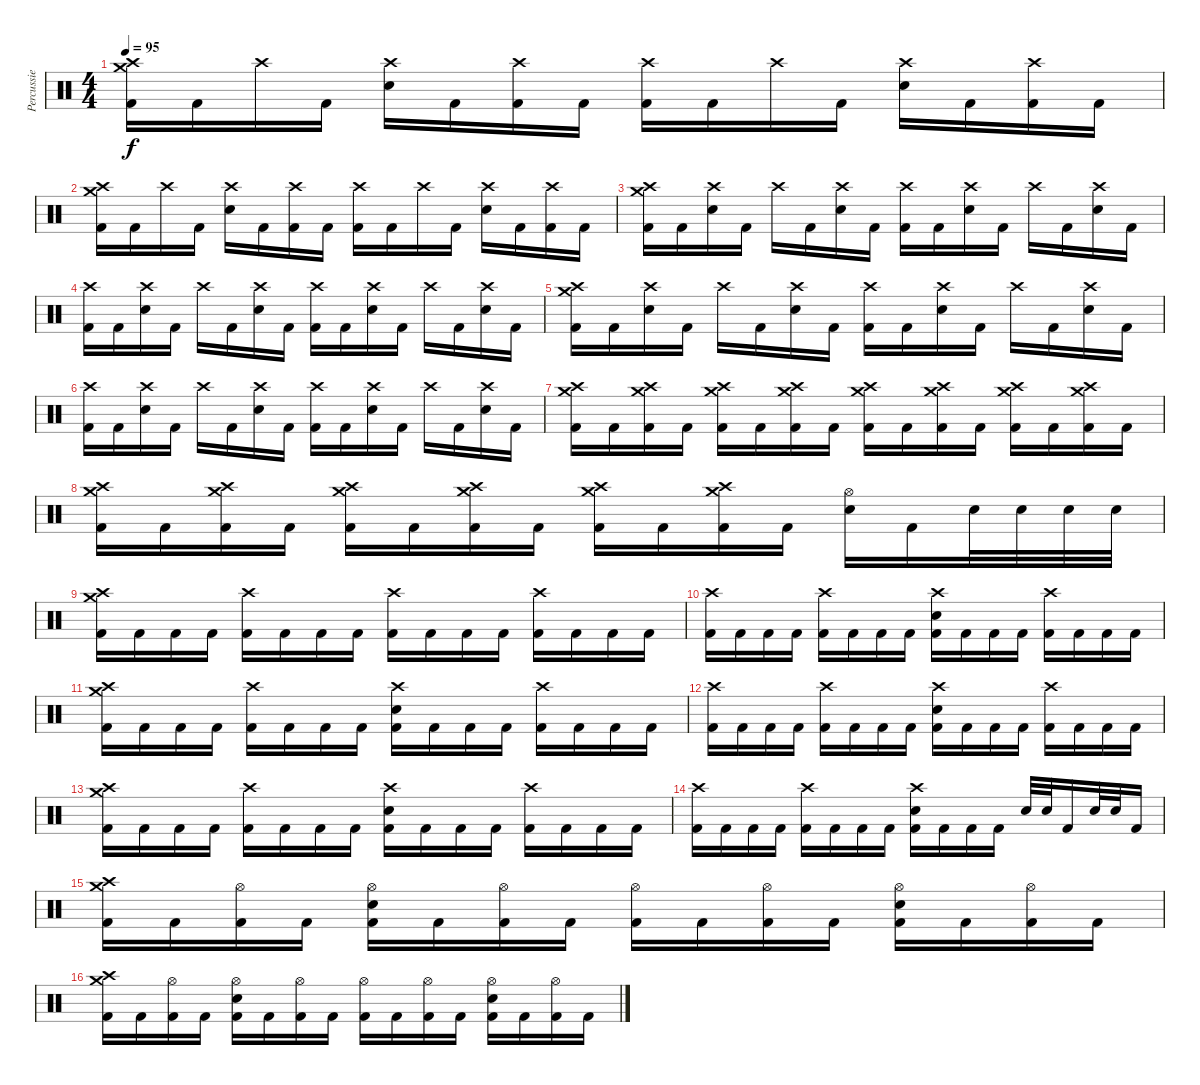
\track ("Percussie" "Percussie") {instrument percussion}
\staff {score}
\articulation defaults
\ts (4 4)
\tempo 95
\clef neutral
\ks c
("Crash medium (hit)" "Crash high (hit)" "Kick (hit) 2").16{dy f} "Kick (hit) 2".16 "Crash high (hit)".16 "Kick (hit) 2".16 ("Crash high (hit)" "Electric Snare (hit)").16 "Kick (hit) 2".16 ("Crash high (hit)" "Kick (hit) 2").16 "Kick (hit) 2".16 ("Crash high (hit)" "Kick (hit) 2").16 "Kick (hit) 2".16 "Crash high (hit)".16 "Kick (hit) 2".16 ("Crash high (hit)" "Electric Snare (hit)").16 "Kick (hit) 2".16 ("Crash high (hit)" "Kick (hit) 2").16 "Kick (hit) 2".16 |
("Crash medium (hit)" "Crash high (hit)" "Kick (hit) 2").16 "Kick (hit) 2".16 "Crash high (hit)".16 "Kick (hit) 2".16 ("Crash high (hit)" "Electric Snare (hit)").16 "Kick (hit) 2".16 ("Crash high (hit)" "Kick (hit) 2").16 "Kick (hit) 2".16 ("Crash high (hit)" "Kick (hit) 2").16 "Kick (hit) 2".16 "Crash high (hit)".16 "Kick (hit) 2".16 ("Crash high (hit)" "Electric Snare (hit)").16 "Kick (hit) 2".16 ("Crash high (hit)" "Kick (hit) 2").16 "Kick (hit) 2".16 |
("Crash medium (hit)" "Crash high (hit)" "Kick (hit) 2").16 "Kick (hit) 2".16 ("Crash high (hit)" "Electric Snare (hit)").16 "Kick (hit) 2".16 "Crash high (hit)".16 "Kick (hit) 2".16 ("Crash high (hit)" "Electric Snare (hit)").16 "Kick (hit) 2".16 ("Crash high (hit)" "Kick (hit) 2").16 "Kick (hit) 2".16 ("Crash high (hit)" "Electric Snare (hit)").16 "Kick (hit) 2".16 "Crash high (hit)".16 "Kick (hit) 2".16 ("Crash high (hit)" "Electric Snare (hit)").16 "Kick (hit) 2".16 |
("Crash high (hit)" "Kick (hit) 2").16 "Kick (hit) 2".16 ("Crash high (hit)" "Electric Snare (hit)").16 "Kick (hit) 2".16 "Crash high (hit)".16 "Kick (hit) 2".16 ("Crash high (hit)" "Electric Snare (hit)").16 "Kick (hit) 2".16 ("Crash high (hit)" "Kick (hit) 2").16 "Kick (hit) 2".16 ("Crash high (hit)" "Electric Snare (hit)").16 "Kick (hit) 2".16 "Crash high (hit)".16 "Kick (hit) 2".16 ("Crash high (hit)" "Electric Snare (hit)").16 "Kick (hit) 2".16 |
("Crash medium (hit)" "Crash high (hit)" "Kick (hit) 2").16 "Kick (hit) 2".16 ("Crash high (hit)" "Electric Snare (hit)").16 "Kick (hit) 2".16 "Crash high (hit)".16 "Kick (hit) 2".16 ("Crash high (hit)" "Electric Snare (hit)").16 "Kick (hit) 2".16 ("Crash high (hit)" "Kick (hit) 2").16 "Kick (hit) 2".16 ("Crash high (hit)" "Electric Snare (hit)").16 "Kick (hit) 2".16 "Crash high (hit)".16 "Kick (hit) 2".16 ("Crash high (hit)" "Electric Snare (hit)").16 "Kick (hit) 2".16 |
("Crash high (hit)" "Kick (hit) 2").16 "Kick (hit) 2".16 ("Crash high (hit)" "Electric Snare (hit)").16 "Kick (hit) 2".16 "Crash high (hit)".16 "Kick (hit) 2".16 ("Crash high (hit)" "Electric Snare (hit)").16 "Kick (hit) 2".16 ("Crash high (hit)" "Kick (hit) 2").16 "Kick (hit) 2".16 ("Crash high (hit)" "Electric Snare (hit)").16 "Kick (hit) 2".16 "Crash high (hit)".16 "Kick (hit) 2".16 ("Crash high (hit)" "Electric Snare (hit)").16 "Kick (hit) 2".16 |
("Crash medium (hit)" "Crash high (hit)" "Kick (hit) 2").16 "Kick (hit) 2".16 ("Crash medium (hit)" "Crash high (hit)" "Kick (hit) 2").16 "Kick (hit) 2".16 ("Crash medium (hit)" "Crash high (hit)" "Kick (hit) 2").16 "Kick (hit) 2".16 ("Crash medium (hit)" "Crash high (hit)" "Kick (hit) 2").16 "Kick (hit) 2".16 ("Crash medium (hit)" "Crash high (hit)" "Kick (hit) 2").16 "Kick (hit) 2".16 ("Crash medium (hit)" "Crash high (hit)" "Kick (hit) 2").16 "Kick (hit) 2".16 ("Crash medium (hit)" "Crash high (hit)" "Kick (hit) 2").16 "Kick (hit) 2".16 ("Crash medium (hit)" "Crash high (hit)" "Kick (hit) 2").16 "Kick (hit) 2".16 |
("Crash medium (hit)" "Crash high (hit)" "Kick (hit) 2").16 "Kick (hit) 2".16 ("Crash medium (hit)" "Crash high (hit)" "Kick (hit) 2").16 "Kick (hit) 2".16 ("Crash medium (hit)" "Crash high (hit)" "Kick (hit) 2").16 "Kick (hit) 2".16 ("Crash medium (hit)" "Crash high (hit)" "Kick (hit) 2").16 "Kick (hit) 2".16 ("Crash medium (hit)" "Crash high (hit)" "Kick (hit) 2").16 "Kick (hit) 2".16 ("Crash medium (hit)" "Crash high (hit)" "Kick (hit) 2").16 "Kick (hit) 2".16 ("Hi-Hat (open)" "Electric Snare (hit)").16 "Kick (hit) 2".16 "Electric Snare (hit)".32 "Electric Snare (hit)".32 "Electric Snare (hit)".32 "Electric Snare (hit)".32 |
("Crash medium (hit)" "Crash high (hit)" "Kick (hit) 2").16 "Kick (hit) 2".16 "Kick (hit) 2".16 "Kick (hit) 2".16 ("Crash high (hit)" "Kick (hit) 2").16 "Kick (hit) 2".16 "Kick (hit) 2".16 "Kick (hit) 2".16 ("Crash high (hit)" "Kick (hit) 2").16 "Kick (hit) 2".16 "Kick (hit) 2".16 "Kick (hit) 2".16 ("Crash high (hit)" "Kick (hit) 2").16 "Kick (hit) 2".16 "Kick (hit) 2".16 "Kick (hit) 2".16 |
("Crash high (hit)" "Kick (hit) 2").16 "Kick (hit) 2".16 "Kick (hit) 2".16 "Kick (hit) 2".16 ("Crash high (hit)" "Kick (hit) 2").16 "Kick (hit) 2".16 "Kick (hit) 2".16 "Kick (hit) 2".16 ("Crash high (hit)" "Electric Snare (hit)" "Kick (hit) 2").16 "Kick (hit) 2".16 "Kick (hit) 2".16 "Kick (hit) 2".16 ("Crash high (hit)" "Kick (hit) 2").16 "Kick (hit) 2".16 "Kick (hit) 2".16 "Kick (hit) 2".16 |
("Crash medium (hit)" "Crash high (hit)" "Kick (hit) 2").16 "Kick (hit) 2".16 "Kick (hit) 2".16 "Kick (hit) 2".16 ("Crash high (hit)" "Kick (hit) 2").16 "Kick (hit) 2".16 "Kick (hit) 2".16 "Kick (hit) 2".16 ("Crash high (hit)" "Electric Snare (hit)" "Kick (hit) 2").16 "Kick (hit) 2".16 "Kick (hit) 2".16 "Kick (hit) 2".16 ("Crash high (hit)" "Kick (hit) 2").16 "Kick (hit) 2".16 "Kick (hit) 2".16 "Kick (hit) 2".16 |
("Crash high (hit)" "Kick (hit) 2").16 "Kick (hit) 2".16 "Kick (hit) 2".16 "Kick (hit) 2".16 ("Crash high (hit)" "Kick (hit) 2").16 "Kick (hit) 2".16 "Kick (hit) 2".16 "Kick (hit) 2".16 ("Crash high (hit)" "Electric Snare (hit)" "Kick (hit) 2").16 "Kick (hit) 2".16 "Kick (hit) 2".16 "Kick (hit) 2".16 ("Crash high (hit)" "Kick (hit) 2").16 "Kick (hit) 2".16 "Kick (hit) 2".16 "Kick (hit) 2".16 |
("Crash medium (hit)" "Crash high (hit)" "Kick (hit) 2").16 "Kick (hit) 2".16 "Kick (hit) 2".16 "Kick (hit) 2".16 ("Crash high (hit)" "Kick (hit) 2").16 "Kick (hit) 2".16 "Kick (hit) 2".16 "Kick (hit) 2".16 ("Crash high (hit)" "Electric Snare (hit)" "Kick (hit) 2").16 "Kick (hit) 2".16 "Kick (hit) 2".16 "Kick (hit) 2".16 ("Crash high (hit)" "Kick (hit) 2").16 "Kick (hit) 2".16 "Kick (hit) 2".16 "Kick (hit) 2".16 |
("Crash high (hit)" "Kick (hit) 2").16 "Kick (hit) 2".16 "Kick (hit) 2".16 "Kick (hit) 2".16 ("Crash high (hit)" "Kick (hit) 2").16 "Kick (hit) 2".16 "Kick (hit) 2".16 "Kick (hit) 2".16 ("Crash high (hit)" "Electric Snare (hit)" "Kick (hit) 2").16 "Kick (hit) 2".16 "Kick (hit) 2".16 "Kick (hit) 2".16 "Electric Snare (hit)".32 "Electric Snare (hit)".32 "Kick (hit) 2".16 "Electric Snare (hit)".32 "Electric Snare (hit)".32 "Kick (hit) 2".16 |
("Crash medium (hit)" "Crash high (hit)" "Kick (hit) 2").16 "Kick (hit) 2".16 ("Hi-Hat (open)" "Kick (hit) 2").16 "Kick (hit) 2".16 ("Hi-Hat (open)" "Electric Snare (hit)" "Kick (hit) 2").16 "Kick (hit) 2".16 ("Hi-Hat (open)" "Kick (hit) 2").16 "Kick (hit) 2".16 ("Hi-Hat (open)" "Kick (hit) 2").16 "Kick (hit) 2".16 ("Hi-Hat (open)" "Kick (hit) 2").16 "Kick (hit) 2".16 ("Hi-Hat (open)" "Electric Snare (hit)" "Kick (hit) 2").16 "Kick (hit) 2".16 ("Hi-Hat (open)" "Kick (hit) 2").16 "Kick (hit) 2".16 |
("Crash medium (hit)" "Crash high (hit)" "Kick (hit) 2").16 "Kick (hit) 2".16 ("Hi-Hat (open)" "Kick (hit) 2").16 "Kick (hit) 2".16 ("Hi-Hat (open)" "Electric Snare (hit)" "Kick (hit) 2").16 "Kick (hit) 2".16 ("Hi-Hat (open)" "Kick (hit) 2").16 "Kick (hit) 2".16 ("Hi-Hat (open)" "Kick (hit) 2").16 "Kick (hit) 2".16 ("Hi-Hat (open)" "Kick (hit) 2").16 "Kick (hit) 2".16 ("Hi-Hat (open)" "Electric Snare (hit)" "Kick (hit) 2").16 "Kick (hit) 2".16 ("Hi-Hat (open)" "Kick (hit) 2").16 "Kick (hit) 2".16
